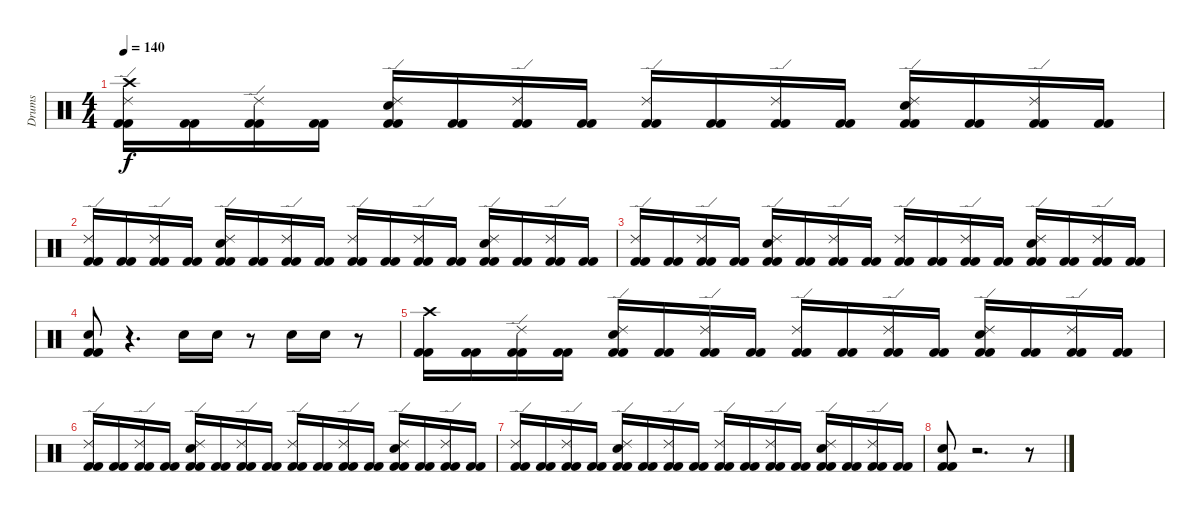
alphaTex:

\track ("Drums" "Drums") {instrument percussion}
\staff {score}
\articulation defaults
\ts (4 4)
\tempo 140
\clef neutral
\ks c
("Crash high (hit)" "Ride (edge) 2" "Kick (hit) 2" "Kick (hit) 2").16{dy f} ("Kick (hit) 2" "Kick (hit) 2").16 ("Ride (edge) 2" "Kick (hit) 2" "Kick (hit) 2").16 ("Kick (hit) 2" "Kick (hit) 2").16 ("Ride (edge) 2" "Electric Snare (hit)" "Kick (hit) 2" "Kick (hit) 2").16 ("Kick (hit) 2" "Kick (hit) 2").16 ("Ride (edge) 2" "Kick (hit) 2" "Kick (hit) 2").16 ("Kick (hit) 2" "Kick (hit) 2").16 ("Ride (edge) 2" "Kick (hit) 2" "Kick (hit) 2").16 ("Kick (hit) 2" "Kick (hit) 2").16 ("Ride (edge) 2" "Kick (hit) 2" "Kick (hit) 2").16 ("Kick (hit) 2" "Kick (hit) 2").16 ("Ride (edge) 2" "Electric Snare (hit)" "Kick (hit) 2" "Kick (hit) 2").16 ("Kick (hit) 2" "Kick (hit) 2").16 ("Ride (edge) 2" "Kick (hit) 2" "Kick (hit) 2").16 ("Kick (hit) 2" "Kick (hit) 2").16 |
("Ride (edge) 2" "Kick (hit) 2" "Kick (hit) 2").16 ("Kick (hit) 2" "Kick (hit) 2").16 ("Ride (edge) 2" "Kick (hit) 2" "Kick (hit) 2").16 ("Kick (hit) 2" "Kick (hit) 2").16 ("Ride (edge) 2" "Electric Snare (hit)" "Kick (hit) 2" "Kick (hit) 2").16 ("Kick (hit) 2" "Kick (hit) 2").16 ("Ride (edge) 2" "Kick (hit) 2" "Kick (hit) 2").16 ("Kick (hit) 2" "Kick (hit) 2").16 ("Ride (edge) 2" "Kick (hit) 2" "Kick (hit) 2").16 ("Kick (hit) 2" "Kick (hit) 2").16 ("Ride (edge) 2" "Kick (hit) 2" "Kick (hit) 2").16 ("Kick (hit) 2" "Kick (hit) 2").16 ("Ride (edge) 2" "Electric Snare (hit)" "Kick (hit) 2" "Kick (hit) 2").16 ("Kick (hit) 2" "Kick (hit) 2").16 ("Ride (edge) 2" "Kick (hit) 2" "Kick (hit) 2").16 ("Kick (hit) 2" "Kick (hit) 2").16 |
("Ride (edge) 2" "Kick (hit) 2" "Kick (hit) 2").16 ("Kick (hit) 2" "Kick (hit) 2").16 ("Ride (edge) 2" "Kick (hit) 2" "Kick (hit) 2").16 ("Kick (hit) 2" "Kick (hit) 2").16 ("Ride (edge) 2" "Electric Snare (hit)" "Kick (hit) 2" "Kick (hit) 2").16 ("Kick (hit) 2" "Kick (hit) 2").16 ("Ride (edge) 2" "Kick (hit) 2" "Kick (hit) 2").16 ("Kick (hit) 2" "Kick (hit) 2").16 ("Ride (edge) 2" "Kick (hit) 2" "Kick (hit) 2").16 ("Kick (hit) 2" "Kick (hit) 2").16 ("Ride (edge) 2" "Kick (hit) 2" "Kick (hit) 2").16 ("Kick (hit) 2" "Kick (hit) 2").16 ("Ride (edge) 2" "Electric Snare (hit)" "Kick (hit) 2" "Kick (hit) 2").16 ("Kick (hit) 2" "Kick (hit) 2").16 ("Ride (edge) 2" "Kick (hit) 2" "Kick (hit) 2").16 ("Kick (hit) 2" "Kick (hit) 2").16 |
("Electric Snare (hit)" "Kick (hit) 2" "Kick (hit) 2").8 r.4{d} "Electric Snare (hit)".16 "Electric Snare (hit)".16 r.8 "Electric Snare (hit)".16 "Electric Snare (hit)".16 r.8 |
("Crash high (hit)" "Kick (hit) 2" "Kick (hit) 2").16 ("Kick (hit) 2" "Kick (hit) 2").16 ("Ride (edge) 2" "Kick (hit) 2" "Kick (hit) 2").16 ("Kick (hit) 2" "Kick (hit) 2").16 ("Ride (edge) 2" "Electric Snare (hit)" "Kick (hit) 2" "Kick (hit) 2").16 ("Kick (hit) 2" "Kick (hit) 2").16 ("Ride (edge) 2" "Kick (hit) 2" "Kick (hit) 2").16 ("Kick (hit) 2" "Kick (hit) 2").16 ("Ride (edge) 2" "Kick (hit) 2" "Kick (hit) 2").16 ("Kick (hit) 2" "Kick (hit) 2").16 ("Ride (edge) 2" "Kick (hit) 2" "Kick (hit) 2").16 ("Kick (hit) 2" "Kick (hit) 2").16 ("Ride (edge) 2" "Electric Snare (hit)" "Kick (hit) 2" "Kick (hit) 2").16 ("Kick (hit) 2" "Kick (hit) 2").16 ("Ride (edge) 2" "Kick (hit) 2" "Kick (hit) 2").16 ("Kick (hit) 2" "Kick (hit) 2").16 |
("Ride (edge) 2" "Kick (hit) 2" "Kick (hit) 2").16 ("Kick (hit) 2" "Kick (hit) 2").16 ("Ride (edge) 2" "Kick (hit) 2" "Kick (hit) 2").16 ("Kick (hit) 2" "Kick (hit) 2").16 ("Ride (edge) 2" "Electric Snare (hit)" "Kick (hit) 2" "Kick (hit) 2").16 ("Kick (hit) 2" "Kick (hit) 2").16 ("Ride (edge) 2" "Kick (hit) 2" "Kick (hit) 2").16 ("Kick (hit) 2" "Kick (hit) 2").16 ("Ride (edge) 2" "Kick (hit) 2" "Kick (hit) 2").16 ("Kick (hit) 2" "Kick (hit) 2").16 ("Ride (edge) 2" "Kick (hit) 2" "Kick (hit) 2").16 ("Kick (hit) 2" "Kick (hit) 2").16 ("Ride (edge) 2" "Electric Snare (hit)" "Kick (hit) 2" "Kick (hit) 2").16 ("Kick (hit) 2" "Kick (hit) 2").16 ("Ride (edge) 2" "Kick (hit) 2" "Kick (hit) 2").16 ("Kick (hit) 2" "Kick (hit) 2").16 |
("Ride (edge) 2" "Kick (hit) 2" "Kick (hit) 2").16 ("Kick (hit) 2" "Kick (hit) 2").16 ("Ride (edge) 2" "Kick (hit) 2" "Kick (hit) 2").16 ("Kick (hit) 2" "Kick (hit) 2").16 ("Ride (edge) 2" "Electric Snare (hit)" "Kick (hit) 2" "Kick (hit) 2").16 ("Kick (hit) 2" "Kick (hit) 2").16 ("Ride (edge) 2" "Kick (hit) 2" "Kick (hit) 2").16 ("Kick (hit) 2" "Kick (hit) 2").16 ("Ride (edge) 2" "Kick (hit) 2" "Kick (hit) 2").16 ("Kick (hit) 2" "Kick (hit) 2").16 ("Ride (edge) 2" "Kick (hit) 2" "Kick (hit) 2").16 ("Kick (hit) 2" "Kick (hit) 2").16 ("Ride (edge) 2" "Electric Snare (hit)" "Kick (hit) 2" "Kick (hit) 2").16 ("Kick (hit) 2" "Kick (hit) 2").16 ("Ride (edge) 2" "Kick (hit) 2" "Kick (hit) 2").16 ("Kick (hit) 2" "Kick (hit) 2").16 |
("Electric Snare (hit)" "Kick (hit) 2" "Kick (hit) 2").8 r.2{d} r.8
